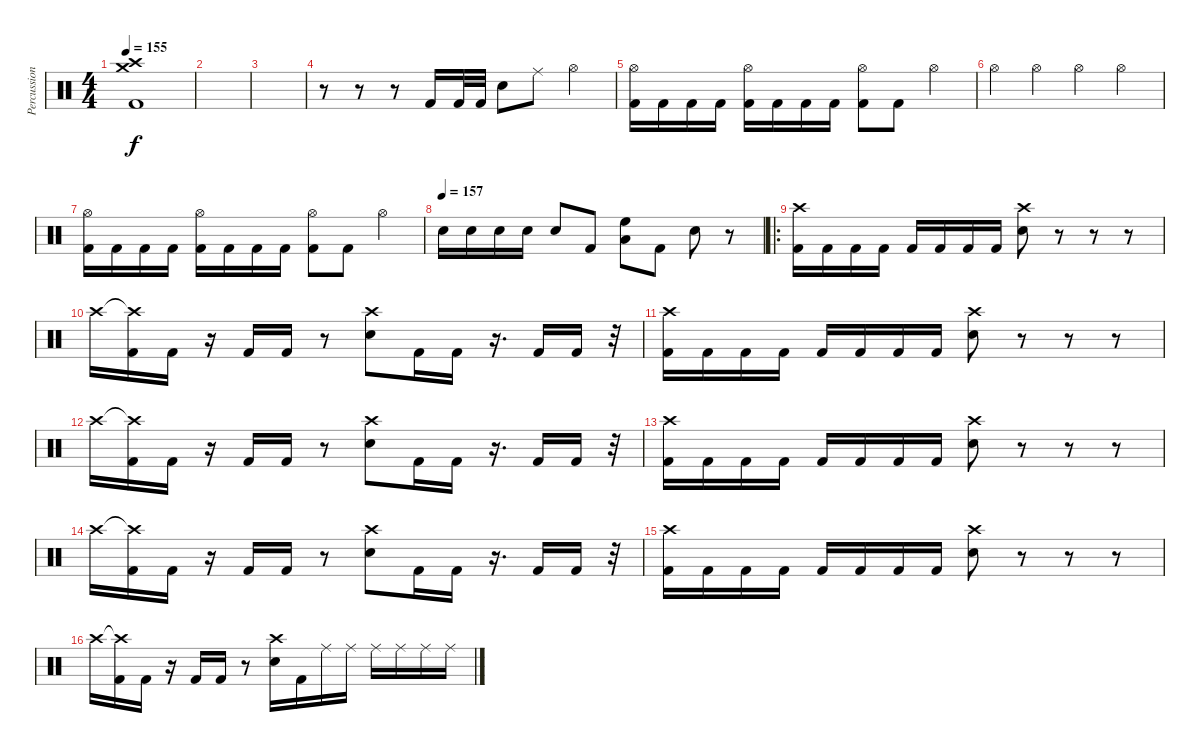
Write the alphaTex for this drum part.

\track ("Percussion" "Percussion") {instrument percussion}
\staff {score}
\articulation defaults
\ts (4 4)
\tempo 150
\tempo 155
\clef neutral
\ks c
("Crash medium (hit)" "Crash high (hit)" "Kick (hit) 2").1{dy f} |
|
|
r.8 r.8 r.8 "Kick (hit) 2".16 "Kick (hit) 2".32 "Kick (hit) 2".32 "Snare (hit) 2".8 "Ride (middle)".8 "Hi-Hat (open)".4 |
("Hi-Hat (open)" "Kick (hit) 2").16 "Kick (hit) 2".16 "Kick (hit) 2".16 "Kick (hit) 2".16 ("Hi-Hat (open)" "Kick (hit) 2").16 "Kick (hit) 2".16 "Kick (hit) 2".16 "Kick (hit) 2".16 ("Hi-Hat (open)" "Kick (hit) 2").8 "Kick (hit) 2".8 "Hi-Hat (open)".4 |
"Hi-Hat (open)".4 "Hi-Hat (open)".4 "Hi-Hat (open)".4 "Hi-Hat (open)".4 |
("Hi-Hat (open)" "Kick (hit) 2").16 "Kick (hit) 2".16 "Kick (hit) 2".16 "Kick (hit) 2".16 ("Hi-Hat (open)" "Kick (hit) 2").16 "Kick (hit) 2".16 "Kick (hit) 2".16 "Kick (hit) 2".16 ("Hi-Hat (open)" "Kick (hit) 2").8 "Kick (hit) 2".8 "Hi-Hat (open)".4 |
\tempo (157)
"Snare (hit) 2".16 "Snare (hit) 2".16 "Snare (hit) 2".16 "Snare (hit) 2".16 "Snare (hit) 2".8 "Kick (hit) 2".8 ("Low Floor Tom (hit)" "High Floor Tom (hit)").8 "Kick (hit) 2".8 "Snare (hit) 2".8 r.8 |
\ro
("Crash high (hit)" "Kick (hit) 2").16 "Kick (hit) 2".16 "Kick (hit) 2".16 "Kick (hit) 2".16 "Kick (hit) 2".16 "Kick (hit) 2".16 "Kick (hit) 2".16 "Kick (hit) 2".16 ("Crash high (hit)" "Snare (hit) 2").8 r.8 r.8 r.8 |
"Crash high (hit)".16 ("Crash high (hit)"{t} "Kick (hit) 2").16 "Kick (hit) 2".16 r.16 "Kick (hit) 2".16 "Kick (hit) 2".16 r.8 ("Crash high (hit)" "Snare (hit) 2").8 "Kick (hit) 2".16 "Kick (hit) 2".16 r.16{d} "Kick (hit) 2".16 "Kick (hit) 2".16 r.32 |
("Crash high (hit)" "Kick (hit) 2").16 "Kick (hit) 2".16 "Kick (hit) 2".16 "Kick (hit) 2".16 "Kick (hit) 2".16 "Kick (hit) 2".16 "Kick (hit) 2".16 "Kick (hit) 2".16 ("Crash high (hit)" "Snare (hit) 2").8 r.8 r.8 r.8 |
"Crash high (hit)".16 ("Crash high (hit)"{t} "Kick (hit) 2").16 "Kick (hit) 2".16 r.16 "Kick (hit) 2".16 "Kick (hit) 2".16 r.8 ("Crash high (hit)" "Snare (hit) 2").8 "Kick (hit) 2".16 "Kick (hit) 2".16 r.16{d} "Kick (hit) 2".16 "Kick (hit) 2".16 r.32 |
("Crash high (hit)" "Kick (hit) 2").16 "Kick (hit) 2".16 "Kick (hit) 2".16 "Kick (hit) 2".16 "Kick (hit) 2".16 "Kick (hit) 2".16 "Kick (hit) 2".16 "Kick (hit) 2".16 ("Crash high (hit)" "Snare (hit) 2").8 r.8 r.8 r.8 |
"Crash high (hit)".16 ("Crash high (hit)"{t} "Kick (hit) 2").16 "Kick (hit) 2".16 r.16 "Kick (hit) 2".16 "Kick (hit) 2".16 r.8 ("Crash high (hit)" "Snare (hit) 2").8 "Kick (hit) 2".16 "Kick (hit) 2".16 r.16{d} "Kick (hit) 2".16 "Kick (hit) 2".16 r.32 |
("Crash high (hit)" "Kick (hit) 2").16 "Kick (hit) 2".16 "Kick (hit) 2".16 "Kick (hit) 2".16 "Kick (hit) 2".16 "Kick (hit) 2".16 "Kick (hit) 2".16 "Kick (hit) 2".16 ("Crash high (hit)" "Snare (hit) 2").8 r.8 r.8 r.8 |
"Crash high (hit)".16 ("Crash high (hit)"{t} "Kick (hit) 2").16 "Kick (hit) 2".16 r.16 "Kick (hit) 2".16 "Kick (hit) 2".16 r.8 ("Crash high (hit)" "Snare (hit) 2").16 "Kick (hit) 2".16 "Ride (middle)".16 "Ride (middle)".16 "Ride (middle)".16 "Ride (middle)".16 "Ride (middle)".16 "Ride (middle)".16
